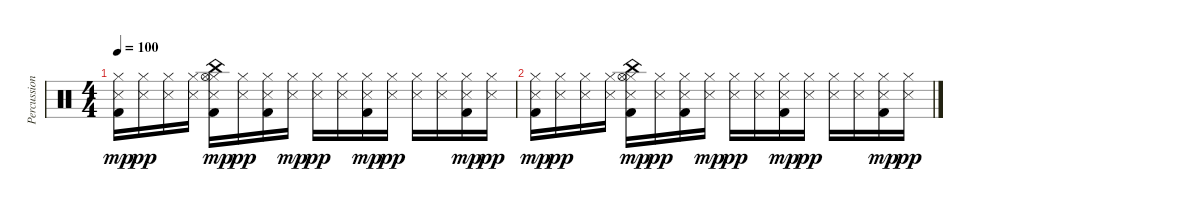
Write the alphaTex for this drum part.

\track ("Percussions" "Percussion") {instrument percussion}
\staff {score}
\articulation defaults
\ts (4 4)
\tempo 100
\clef neutral
\ks c
("Hi-Hat (closed)" "Snare (side stick) 3" "Kick (hit) 2").16{dy mp} ("Hi-Hat (closed)" "Snare (side stick) 3").16{dy pp} ("Hi-Hat (closed)" "Snare (side stick) 3").16 ("Hi-Hat (closed)" "Snare (side stick) 3").16 ("Hi-Hat (closed)" "China (hit)" "Hi-Hat (open)" "Snare (side stick) 3" "Kick (hit) 2").16{dy mp} ("Hi-Hat (closed)" "Snare (side stick) 3").16{dy pp} ("Hi-Hat (closed)" "Snare (side stick) 3" "Kick (hit) 2").16 ("Hi-Hat (closed)" "Snare (side stick) 3").16{dy mp} ("Hi-Hat (closed)" "Snare (side stick) 3").16{dy pp} ("Hi-Hat (closed)" "Snare (side stick) 3").16 ("Hi-Hat (closed)" "Snare (side stick) 3" "Kick (hit) 2").16{dy mp} ("Hi-Hat (closed)" "Snare (side stick) 3").16{dy pp} ("Hi-Hat (closed)" "Snare (side stick) 3").16 ("Hi-Hat (closed)" "Snare (side stick) 3").16 ("Hi-Hat (closed)" "Snare (side stick) 3" "Kick (hit) 2").16{dy mp} ("Hi-Hat (closed)" "Snare (side stick) 3").16{dy pp} |
("Hi-Hat (closed)" "Snare (side stick) 3" "Kick (hit) 2").16{dy mp} ("Hi-Hat (closed)" "Snare (side stick) 3").16{dy pp} ("Hi-Hat (closed)" "Snare (side stick) 3").16 ("Hi-Hat (closed)" "Snare (side stick) 3").16 ("Hi-Hat (closed)" "China (hit)" "Hi-Hat (open)" "Snare (side stick) 3" "Kick (hit) 2").16{dy mp} ("Hi-Hat (closed)" "Snare (side stick) 3").16{dy pp} ("Hi-Hat (closed)" "Snare (side stick) 3" "Kick (hit) 2").16 ("Hi-Hat (closed)" "Snare (side stick) 3").16{dy mp} ("Hi-Hat (closed)" "Snare (side stick) 3").16{dy pp} ("Hi-Hat (closed)" "Snare (side stick) 3").16 ("Hi-Hat (closed)" "Snare (side stick) 3" "Kick (hit) 2").16{dy mp} ("Hi-Hat (closed)" "Snare (side stick) 3").16{dy pp} ("Hi-Hat (closed)" "Snare (side stick) 3").16 ("Hi-Hat (closed)" "Snare (side stick) 3").16 ("Hi-Hat (closed)" "Snare (side stick) 3" "Kick (hit) 2").16{dy mp} ("Hi-Hat (closed)" "Snare (side stick) 3").16{dy pp}
